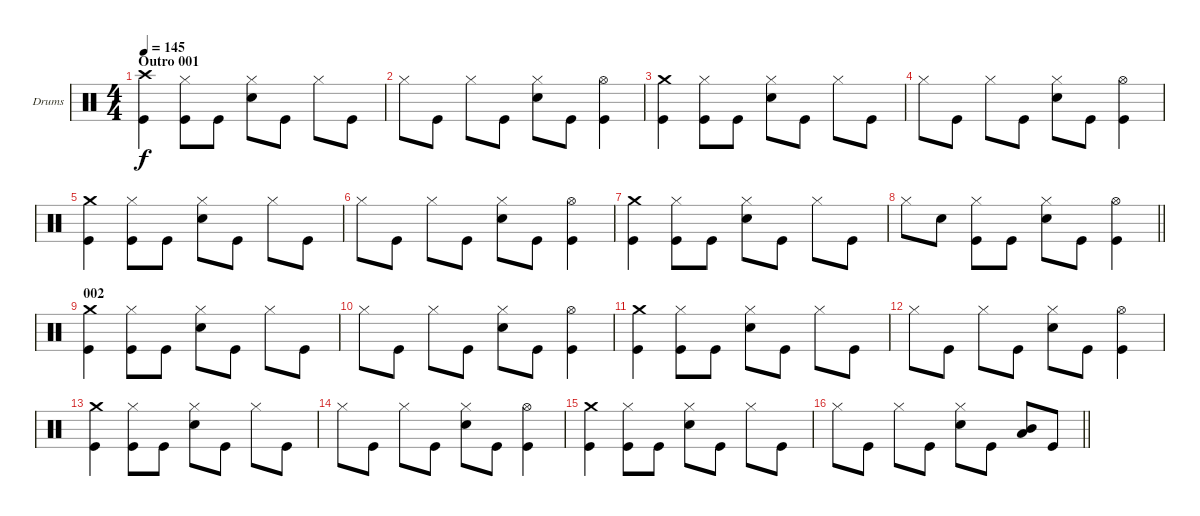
\bracketExtendMode groupsimilarinstruments
\firstSystemTrackNameOrientation horizontal
\otherSystemsTrackNameOrientation horizontal
\track ("drums (Anton Zulganov)" "Drums") {instrument percussion}
\staff {score}
\articulation defaults
\ts (4 4)
\section ("" "Outro 001")
\tempo 145
\clef neutral
\ks aminor
("Kick (hit)" "Crash high (hit)").4{dy f} ("Hi-Hat (closed)" "Kick (hit)").8 "Kick (hit)".8 ("Hi-Hat (closed)" "Snare (hit) 2").8 "Kick (hit)".8 "Hi-Hat (closed)".8 "Kick (hit)".8 |
"Hi-Hat (closed)".8 "Kick (hit)".8 "Hi-Hat (closed)".8 "Kick (hit)".8 ("Hi-Hat (closed)" "Snare (hit) 2").8 "Kick (hit)".8 ("Hi-Hat (open)" "Kick (hit)").4 |
("Kick (hit)" "Crash medium (hit)").4 ("Hi-Hat (closed)" "Kick (hit)").8 "Kick (hit)".8 ("Hi-Hat (closed)" "Snare (hit) 2").8 "Kick (hit)".8 "Hi-Hat (closed)".8 "Kick (hit)".8 |
"Hi-Hat (closed)".8 "Kick (hit)".8 "Hi-Hat (closed)".8 "Kick (hit)".8 ("Hi-Hat (closed)" "Snare (hit) 2").8 "Kick (hit)".8 ("Hi-Hat (open)" "Kick (hit)").4 |
("Kick (hit)" "Crash medium (hit)").4 ("Hi-Hat (closed)" "Kick (hit)").8 "Kick (hit)".8 ("Hi-Hat (closed)" "Snare (hit) 2").8 "Kick (hit)".8 "Hi-Hat (closed)".8 "Kick (hit)".8 |
"Hi-Hat (closed)".8 "Kick (hit)".8 "Hi-Hat (closed)".8 "Kick (hit)".8 ("Hi-Hat (closed)" "Snare (hit) 2").8 "Kick (hit)".8 ("Hi-Hat (open)" "Kick (hit)").4 |
("Kick (hit)" "Crash medium (hit)").4 ("Hi-Hat (closed)" "Kick (hit)").8 "Kick (hit)".8 ("Hi-Hat (closed)" "Snare (hit) 2").8 "Kick (hit)".8 "Hi-Hat (closed)".8 "Kick (hit)".8 |
\barLineRight lightlight "Hi-Hat (closed)".8 "Snare (hit) 2".8
("Hi-Hat (closed)" "Kick (hit)").8 "Kick (hit)".8 ("Hi-Hat (closed)" "Snare (hit) 2").8 "Kick (hit)".8 ("Hi-Hat (open)" "Kick (hit)").4 |
\section ("" "002")
("Kick (hit)" "Crash medium (hit)").4 ("Hi-Hat (closed)" "Kick (hit)").8 "Kick (hit)".8 ("Hi-Hat (closed)" "Snare (hit) 2").8 "Kick (hit)".8 "Hi-Hat (closed)".8 "Kick (hit)".8 |
"Hi-Hat (closed)".8 "Kick (hit)".8 "Hi-Hat (closed)".8 "Kick (hit)".8 ("Hi-Hat (closed)" "Snare (hit) 2").8 "Kick (hit)".8 ("Hi-Hat (open)" "Kick (hit)").4 |
("Kick (hit)" "Crash medium (hit)").4 ("Hi-Hat (closed)" "Kick (hit)").8 "Kick (hit)".8 ("Hi-Hat (closed)" "Snare (hit) 2").8 "Kick (hit)".8 "Hi-Hat (closed)".8 "Kick (hit)".8 |
"Hi-Hat (closed)".8 "Kick (hit)".8 "Hi-Hat (closed)".8 "Kick (hit)".8 ("Hi-Hat (closed)" "Snare (hit) 2").8 "Kick (hit)".8 ("Hi-Hat (open)" "Kick (hit)").4 |
("Kick (hit)" "Crash medium (hit)").4 ("Hi-Hat (closed)" "Kick (hit)").8 "Kick (hit)".8 ("Hi-Hat (closed)" "Snare (hit) 2").8 "Kick (hit)".8 "Hi-Hat (closed)".8 "Kick (hit)".8 |
"Hi-Hat (closed)".8 "Kick (hit)".8 "Hi-Hat (closed)".8 "Kick (hit)".8 ("Hi-Hat (closed)" "Snare (hit) 2").8 "Kick (hit)".8 ("Kick (hit)" "Hi-Hat (open)").4 |
("Kick (hit)" "Crash medium (hit)").4 ("Hi-Hat (closed)" "Kick (hit)").8 "Kick (hit)".8 ("Hi-Hat (closed)" "Snare (hit) 2").8 "Kick (hit)".8 "Hi-Hat (closed)".8 "Kick (hit)".8 |
\barLineRight lightlight "Hi-Hat (closed)".8 "Kick (hit)".8 "Hi-Hat (closed)".8 "Kick (hit)".8
("Hi-Hat (closed)" "Snare (hit) 2").8 "Kick (hit)".8 ("Mid Tom (hit)" "Low Tom (hit)").8 "Kick (hit)".8
